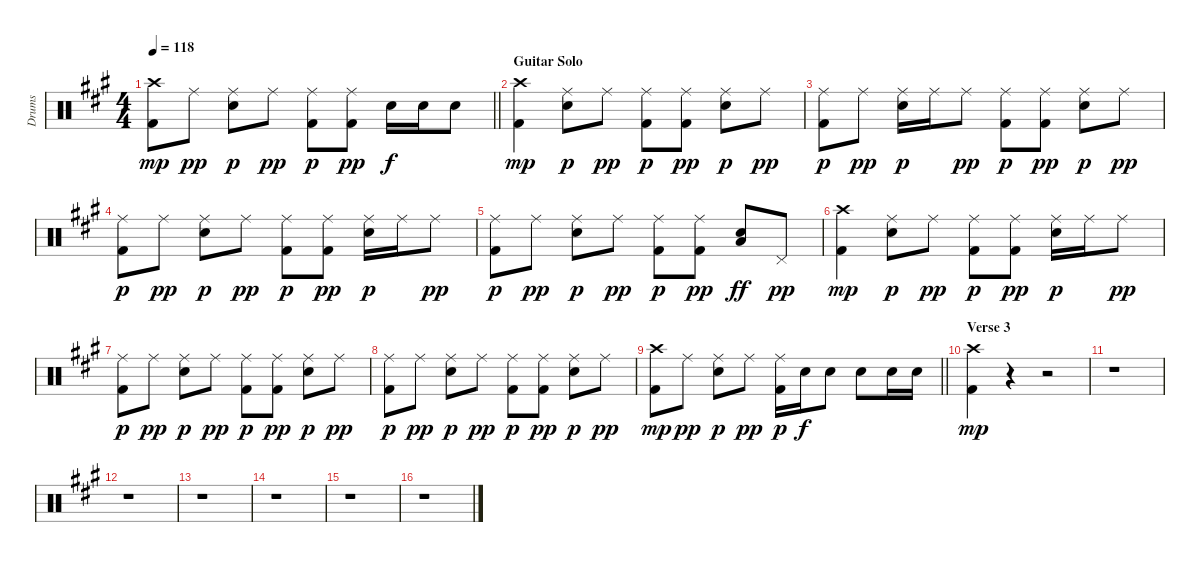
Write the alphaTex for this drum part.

\track ("Drums" "Drums") {instrument percussion}
\staff {score}
\articulation defaults
\ts (4 4)
\tempo 118
\clef neutral
\barLineRight lightlight
\ks a
("Crash high (hit)" "Kick (hit) 2").8{dy mp} "Ride (middle)".8{dy pp} ("Electric Snare (hit)" "Ride (middle)").8{dy p} "Ride (middle)".8{dy pp} ("Kick (hit) 2" "Ride (middle)").8{dy p} ("Kick (hit) 2" "Ride (middle)").8{dy pp} "Electric Snare (hit)".16{dy f} "Electric Snare (hit)".16 "Electric Snare (hit)".8 |
\section ("" "Guitar Solo")
("Crash high (hit)" "Kick (hit) 2").4{dy mp} ("Electric Snare (hit)" "Ride (middle)").8{dy p} "Ride (middle)".8{dy pp} ("Kick (hit) 2" "Ride (middle)").8{dy p} ("Kick (hit) 2" "Ride (middle)").8{dy pp} ("Electric Snare (hit)" "Ride (middle)").8{dy p} "Ride (middle)".8{dy pp} |
("Kick (hit) 2" "Ride (middle)").8{dy p} "Ride (middle)".8{dy pp} ("Electric Snare (hit)" "Ride (middle)").16{dy p} "Ride (middle)".16 "Ride (middle)".8{dy pp} ("Kick (hit) 2" "Ride (middle)").8{dy p} ("Kick (hit) 2" "Ride (middle)").8{dy pp} ("Electric Snare (hit)" "Ride (middle)").8{dy p} "Ride (middle)".8{dy pp} |
("Kick (hit) 2" "Ride (middle)").8{dy p} "Ride (middle)".8{dy pp} ("Electric Snare (hit)" "Ride (middle)").8{dy p} "Ride (middle)".8{dy pp} ("Kick (hit) 2" "Ride (middle)").8{dy p} ("Kick (hit) 2" "Ride (middle)").8{dy pp} ("Electric Snare (hit)" "Ride (middle)").16{dy p} "Ride (middle)".16 "Ride (middle)".8{dy pp} |
("Kick (hit) 2" "Ride (middle)").8{dy p} "Ride (middle)".8{dy pp} ("Electric Snare (hit)" "Ride (middle)").8{dy p} "Ride (middle)".8{dy pp} ("Kick (hit) 2" "Ride (middle)").8{dy p} ("Kick (hit) 2" "Ride (middle)").8{dy pp} ("Low Tom (hit)" "Electric Snare (hit)").8{dy ff} "Pedal Hi-Hat (hit)".8{dy pp} |
("Crash high (hit)" "Kick (hit) 2").4{dy mp} ("Electric Snare (hit)" "Ride (middle)").8{dy p} "Ride (middle)".8{dy pp} ("Kick (hit) 2" "Ride (middle)").8{dy p} ("Kick (hit) 2" "Ride (middle)").8{dy pp} ("Electric Snare (hit)" "Ride (middle)").16{dy p} "Ride (middle)".16 "Ride (middle)".8{dy pp} |
("Kick (hit) 2" "Ride (middle)").8{dy p} "Ride (middle)".8{dy pp} ("Electric Snare (hit)" "Ride (middle)").8{dy p} "Ride (middle)".8{dy pp} ("Kick (hit) 2" "Ride (middle)").8{dy p} ("Kick (hit) 2" "Ride (middle)").8{dy pp} ("Electric Snare (hit)" "Ride (middle)").8{dy p} "Ride (middle)".8{dy pp} |
("Kick (hit) 2" "Ride (middle)").8{dy p} "Ride (middle)".8{dy pp} ("Electric Snare (hit)" "Ride (middle)").8{dy p} "Ride (middle)".8{dy pp} ("Kick (hit) 2" "Ride (middle)").8{dy p} ("Kick (hit) 2" "Ride (middle)").8{dy pp} ("Electric Snare (hit)" "Ride (middle)").8{dy p} "Ride (middle)".8{dy pp} |
\barLineRight lightlight
("Crash high (hit)" "Kick (hit) 2").8{dy mp} "Ride (middle)".8{dy pp} ("Electric Snare (hit)" "Ride (middle)").8{dy p} "Ride (middle)".8{dy pp} ("Kick (hit) 2" "Ride (middle)").16{dy p} "Electric Snare (hit)".16{dy f} "Electric Snare (hit)".8 "Electric Snare (hit)".8 "Electric Snare (hit)".16 "Electric Snare (hit)".16 |
\section ("" "Verse 3")
("Crash high (hit)" "Kick (hit) 2").4{dy mp} r.4 r.2 |
r.1 |
r.1 |
r.1 |
r.1 |
r.1 |
r.1
